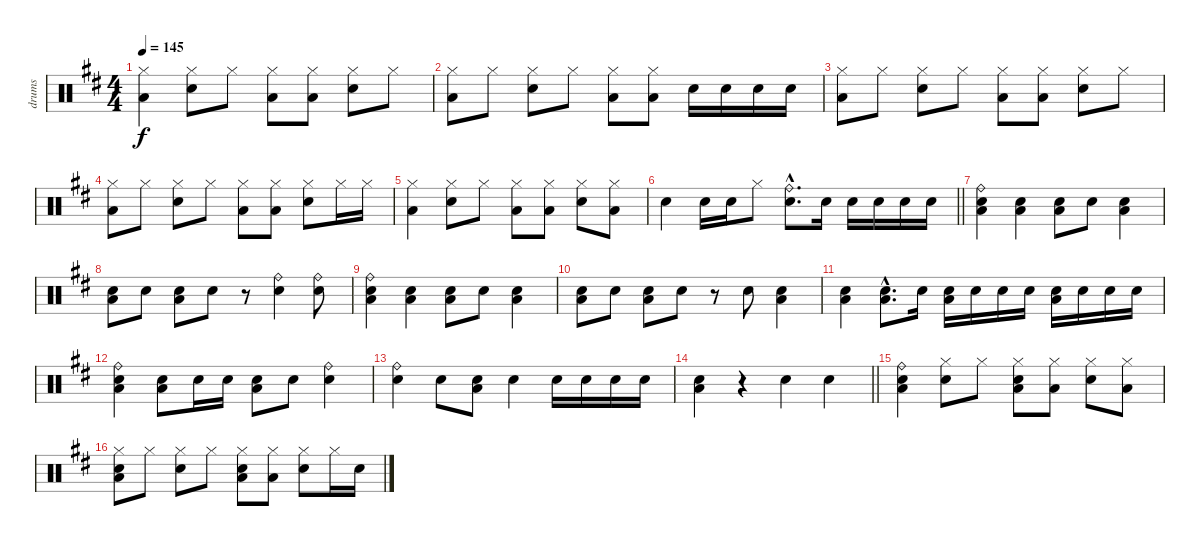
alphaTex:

\track ("drums" "drums") {instrument percussion}
\staff {score}
\articulation defaults
\ts (4 4)
\tempo 145
\clef neutral
\ks d
("Hi-Hat (closed)" "Low Floor Tom (hit)").4{dy f} ("Hi-Hat (closed)" "Electric Snare (hit)").8 "Hi-Hat (closed)".8 ("Hi-Hat (closed)" "Low Floor Tom (hit)").8 ("Hi-Hat (closed)" "Low Floor Tom (hit)").8 ("Hi-Hat (closed)" "Electric Snare (hit)").8 "Hi-Hat (closed)".8 |
("Hi-Hat (closed)" "Low Floor Tom (hit)").8 "Hi-Hat (closed)".8 ("Hi-Hat (closed)" "Electric Snare (hit)").8 "Hi-Hat (closed)".8 ("Hi-Hat (closed)" "Low Floor Tom (hit)").8 ("Hi-Hat (closed)" "Low Floor Tom (hit)").8 "Electric Snare (hit)".16 "Electric Snare (hit)".16 "Electric Snare (hit)".16 "Electric Snare (hit)".16 |
("Hi-Hat (closed)" "Low Floor Tom (hit)").8 "Hi-Hat (closed)".8 ("Hi-Hat (closed)" "Electric Snare (hit)").8 "Hi-Hat (closed)".8 ("Hi-Hat (closed)" "Low Floor Tom (hit)").8 ("Hi-Hat (closed)" "Low Floor Tom (hit)").8 ("Hi-Hat (closed)" "Electric Snare (hit)").8 "Hi-Hat (closed)".8 |
("Hi-Hat (closed)" "Low Floor Tom (hit)").8 "Hi-Hat (closed)".8 ("Hi-Hat (closed)" "Electric Snare (hit)").8 "Hi-Hat (closed)".8 ("Hi-Hat (closed)" "Low Floor Tom (hit)").8 ("Hi-Hat (closed)" "Low Floor Tom (hit)").8 ("Hi-Hat (closed)" "Electric Snare (hit)").8 "Hi-Hat (closed)".16 "Hi-Hat (closed)".16 |
("Hi-Hat (closed)" "Low Floor Tom (hit)").4 ("Hi-Hat (closed)" "Electric Snare (hit)").8 "Hi-Hat (closed)".8 ("Hi-Hat (closed)" "Low Floor Tom (hit)").8 ("Hi-Hat (closed)" "Low Floor Tom (hit)").8 ("Hi-Hat (closed)" "Electric Snare (hit)").8 ("Hi-Hat (closed)" "Low Floor Tom (hit)").8 |
\barLineRight lightlight "Electric Snare (hit)".4 "Electric Snare (hit)".16 "Electric Snare (hit)".16 "Hi-Hat (closed)".8
("Ride (bell)"{hac} "Electric Snare (hit)"{hac}).8{d} "Electric Snare (hit)".16 "Electric Snare (hit)".16 "Electric Snare (hit)".16 "Electric Snare (hit)".16 "Electric Snare (hit)".16 |
("Ride (bell)" "Electric Snare (hit)" "Low Floor Tom (hit)").4 ("Electric Snare (hit)" "Low Floor Tom (hit)").4 ("Electric Snare (hit)" "Low Floor Tom (hit)").8 "Electric Snare (hit)".8 ("Electric Snare (hit)" "Low Floor Tom (hit)").4 |
("Electric Snare (hit)" "Low Floor Tom (hit)").8 "Electric Snare (hit)".8 ("Electric Snare (hit)" "Low Floor Tom (hit)").8 "Electric Snare (hit)".8 r.8 ("Ride (bell)" "Electric Snare (hit)").4 ("Ride (bell)" "Electric Snare (hit)").8 |
("Ride (bell)" "Electric Snare (hit)" "Low Floor Tom (hit)").4 ("Electric Snare (hit)" "Low Floor Tom (hit)").4 ("Electric Snare (hit)" "Low Floor Tom (hit)").8 "Electric Snare (hit)".8 ("Electric Snare (hit)" "Low Floor Tom (hit)").4 |
("Electric Snare (hit)" "Low Floor Tom (hit)").8 "Electric Snare (hit)".8 ("Electric Snare (hit)" "Low Floor Tom (hit)").8 "Electric Snare (hit)".8 r.8 "Electric Snare (hit)".8 ("Electric Snare (hit)" "Low Floor Tom (hit)").4 |
("Electric Snare (hit)" "Low Floor Tom (hit)").4 ("Electric Snare (hit)"{hac} "Low Floor Tom (hit)"{hac}).8{d} "Electric Snare (hit)".16 ("Electric Snare (hit)" "Low Floor Tom (hit)").16 "Electric Snare (hit)".16 "Electric Snare (hit)".16 "Electric Snare (hit)".16 ("Electric Snare (hit)" "Low Floor Tom (hit)").16 "Electric Snare (hit)".16 "Electric Snare (hit)".16 "Electric Snare (hit)".16 |
("Ride (bell)" "Electric Snare (hit)" "Low Floor Tom (hit)").4 ("Electric Snare (hit)" "Low Floor Tom (hit)").8 "Electric Snare (hit)".16 "Electric Snare (hit)".16 ("Electric Snare (hit)" "Low Floor Tom (hit)").8 "Electric Snare (hit)".8 ("Ride (bell)" "Electric Snare (hit)").4 |
("Ride (bell)" "Electric Snare (hit)").4 "Electric Snare (hit)".8 ("Electric Snare (hit)" "Low Floor Tom (hit)").8 "Electric Snare (hit)".4 "Electric Snare (hit)".16 "Electric Snare (hit)".16 "Electric Snare (hit)".16 "Electric Snare (hit)".16 |
\barLineRight lightlight
("Electric Snare (hit)" "Low Floor Tom (hit)").4 r.4 "Electric Snare (hit)".4 "Electric Snare (hit)".4 |
("Ride (bell)" "Electric Snare (hit)" "Low Floor Tom (hit)").4 ("Hi-Hat (closed)" "Electric Snare (hit)").8 "Hi-Hat (closed)".8 ("Hi-Hat (closed)" "Electric Snare (hit)" "Low Floor Tom (hit)").8 ("Hi-Hat (closed)" "Low Floor Tom (hit)").8 ("Hi-Hat (closed)" "Electric Snare (hit)").8 ("Hi-Hat (closed)" "Low Floor Tom (hit)").8 |
("Hi-Hat (closed)" "Electric Snare (hit)" "Low Floor Tom (hit)").8 "Hi-Hat (closed)".8 ("Hi-Hat (closed)" "Electric Snare (hit)").8 "Hi-Hat (closed)".8 ("Hi-Hat (closed)" "Electric Snare (hit)" "Low Floor Tom (hit)").8 ("Hi-Hat (closed)" "Low Floor Tom (hit)").8 ("Hi-Hat (closed)" "Electric Snare (hit)").8 "Hi-Hat (closed)".16 "Electric Snare (hit)".16
